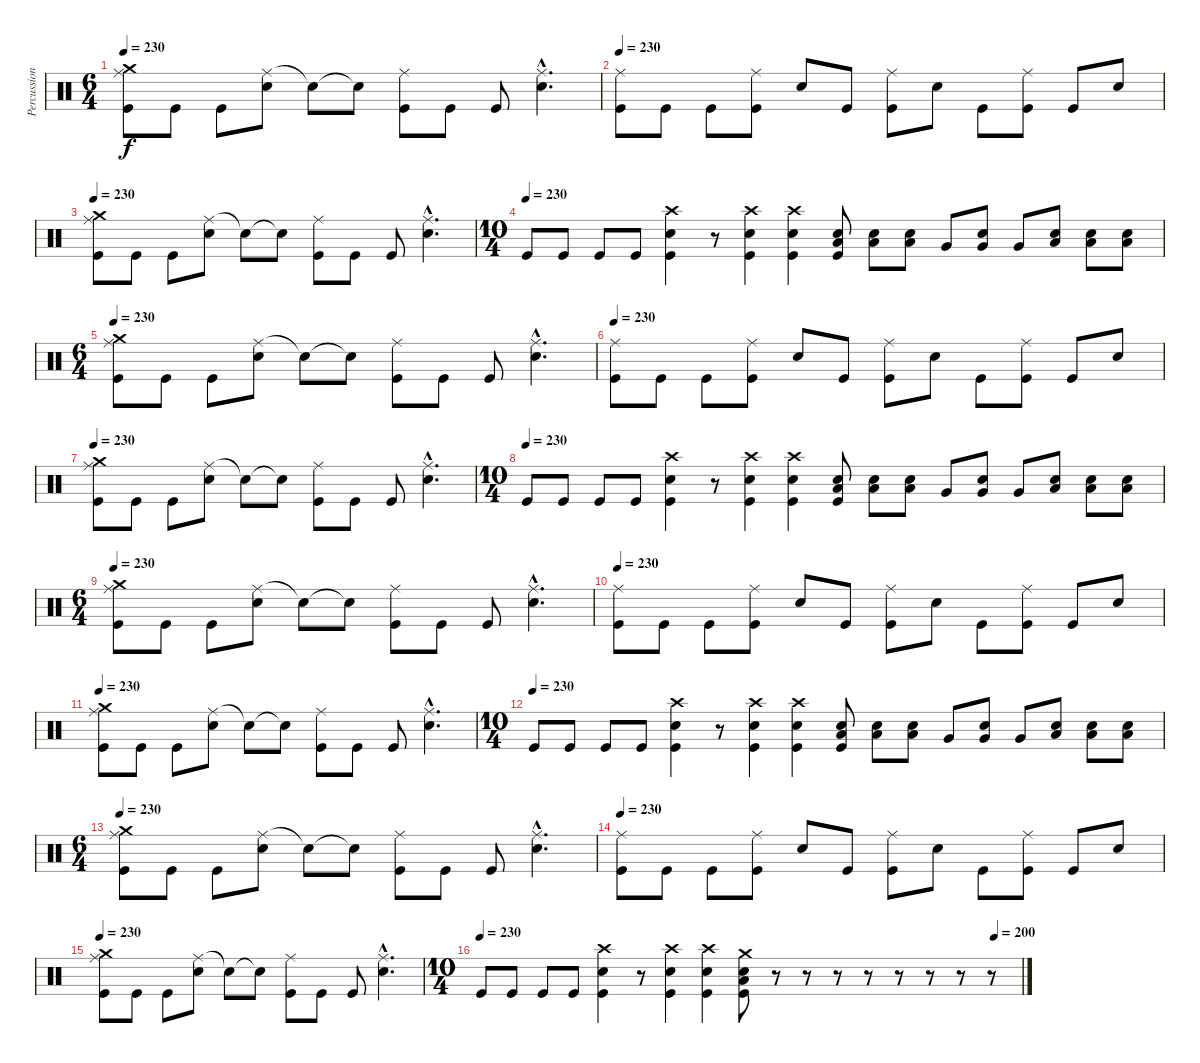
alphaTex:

\track ("Percussion" "Percussion") {instrument percussion}
\staff {score}
\articulation defaults
\ts (6 4)
\tempo 230
\clef neutral
\ks c
("Crash medium (hit)" "Ride (middle)" "Kick (hit)").8{dy f} "Kick (hit)".8 "Kick (hit)".8 ("Ride (middle)" "Electric Snare (hit)").8 "Snare (hit)"{t}.8 "Snare (hit)"{t}.8 ("Ride (middle)" "Kick (hit)").8 "Kick (hit)".8 "Kick (hit)".8 ("Ride (middle)"{hac} "Electric Snare (hit)"{hac}).4{d} |
\tempo 230
("Ride (middle)" "Kick (hit)").8 "Kick (hit)".8 "Kick (hit)".8 ("Ride (middle)" "Kick (hit)").8 "Electric Snare (hit)".8 "Kick (hit)".8 ("Ride (middle)" "Kick (hit)").8 "Electric Snare (hit)".8 "Kick (hit)".8 ("Ride (middle)" "Kick (hit)").8 "Kick (hit)".8 "Electric Snare (hit)".8 |
\tempo 230
("Crash medium (hit)" "Ride (middle)" "Kick (hit)").8 "Kick (hit)".8 "Kick (hit)".8 ("Ride (middle)" "Electric Snare (hit)").8 "Snare (hit)"{t}.8 "Snare (hit)"{t}.8 ("Ride (middle)" "Kick (hit)").8 "Kick (hit)".8 "Kick (hit)".8 ("Ride (middle)"{hac} "Electric Snare (hit)"{hac}).4{d} |
\ts (10 4)
\tempo (230)
"Kick (hit)".8 "Kick (hit)".8 "Kick (hit)".8 "Kick (hit)".8 ("Crash high (hit)" "Electric Snare (hit)" "Kick (hit)").4 r.8 ("Crash high (hit)" "Electric Snare (hit)" "Kick (hit)").4 ("Crash high (hit)" "Electric Snare (hit)" "Kick (hit)").4 ("Electric Snare (hit)" "Low Floor Tom (hit)" "Kick (hit)").8 ("Electric Snare (hit)" "Low Floor Tom (hit)").8 ("Electric Snare (hit)" "Low Floor Tom (hit)").8 "Very Low Tom (hit)".8 ("Electric Snare (hit)" "Very Low Tom (hit)").8 "Very Low Tom (hit)".8 ("Electric Snare (hit)" "Low Tom (hit)").8 ("Electric Snare (hit)" "Low Tom (hit)").8 ("Electric Snare (hit)" "Low Tom (hit)").8 |
\ts (6 4)
\tempo 230
("Crash medium (hit)" "Ride (middle)" "Kick (hit)").8 "Kick (hit)".8 "Kick (hit)".8 ("Ride (middle)" "Electric Snare (hit)").8 "Snare (hit)"{t}.8 "Snare (hit)"{t}.8 ("Ride (middle)" "Kick (hit)").8 "Kick (hit)".8 "Kick (hit)".8 ("Ride (middle)"{hac} "Electric Snare (hit)"{hac}).4{d} |
\tempo 230
("Ride (middle)" "Kick (hit)").8 "Kick (hit)".8 "Kick (hit)".8 ("Ride (middle)" "Kick (hit)").8 "Electric Snare (hit)".8 "Kick (hit)".8 ("Ride (middle)" "Kick (hit)").8 "Electric Snare (hit)".8 "Kick (hit)".8 ("Ride (middle)" "Kick (hit)").8 "Kick (hit)".8 "Electric Snare (hit)".8 |
\tempo 230
("Crash medium (hit)" "Ride (middle)" "Kick (hit)").8 "Kick (hit)".8 "Kick (hit)".8 ("Ride (middle)" "Electric Snare (hit)").8 "Snare (hit)"{t}.8 "Snare (hit)"{t}.8 ("Ride (middle)" "Kick (hit)").8 "Kick (hit)".8 "Kick (hit)".8 ("Ride (middle)"{hac} "Electric Snare (hit)"{hac}).4{d} |
\ts (10 4)
\tempo (230)
"Kick (hit)".8 "Kick (hit)".8 "Kick (hit)".8 "Kick (hit)".8 ("Crash high (hit)" "Electric Snare (hit)" "Kick (hit)").4 r.8 ("Crash high (hit)" "Electric Snare (hit)" "Kick (hit)").4 ("Crash high (hit)" "Electric Snare (hit)" "Kick (hit)").4 ("Electric Snare (hit)" "Low Floor Tom (hit)" "Kick (hit)").8 ("Electric Snare (hit)" "Low Floor Tom (hit)").8 ("Electric Snare (hit)" "Low Floor Tom (hit)").8 "Very Low Tom (hit)".8 ("Electric Snare (hit)" "Very Low Tom (hit)").8 "Very Low Tom (hit)".8 ("Electric Snare (hit)" "Low Tom (hit)").8 ("Electric Snare (hit)" "Low Tom (hit)").8 ("Electric Snare (hit)" "Low Tom (hit)").8 |
\ts (6 4)
\tempo 230
("Crash medium (hit)" "Ride (middle)" "Kick (hit)").8 "Kick (hit)".8 "Kick (hit)".8 ("Ride (middle)" "Electric Snare (hit)").8 "Snare (hit)"{t}.8 "Snare (hit)"{t}.8 ("Ride (middle)" "Kick (hit)").8 "Kick (hit)".8 "Kick (hit)".8 ("Ride (middle)"{hac} "Electric Snare (hit)"{hac}).4{d} |
\tempo 230
("Ride (middle)" "Kick (hit)").8 "Kick (hit)".8 "Kick (hit)".8 ("Ride (middle)" "Kick (hit)").8 "Electric Snare (hit)".8 "Kick (hit)".8 ("Ride (middle)" "Kick (hit)").8 "Electric Snare (hit)".8 "Kick (hit)".8 ("Ride (middle)" "Kick (hit)").8 "Kick (hit)".8 "Electric Snare (hit)".8 |
\tempo 230
("Crash medium (hit)" "Ride (middle)" "Kick (hit)").8 "Kick (hit)".8 "Kick (hit)".8 ("Ride (middle)" "Electric Snare (hit)").8 "Snare (hit)"{t}.8 "Snare (hit)"{t}.8 ("Ride (middle)" "Kick (hit)").8 "Kick (hit)".8 "Kick (hit)".8 ("Ride (middle)"{hac} "Electric Snare (hit)"{hac}).4{d} |
\ts (10 4)
\tempo (230)
"Kick (hit)".8 "Kick (hit)".8 "Kick (hit)".8 "Kick (hit)".8 ("Crash high (hit)" "Electric Snare (hit)" "Kick (hit)").4 r.8 ("Crash high (hit)" "Electric Snare (hit)" "Kick (hit)").4 ("Crash high (hit)" "Electric Snare (hit)" "Kick (hit)").4 ("Electric Snare (hit)" "Low Floor Tom (hit)" "Kick (hit)").8 ("Electric Snare (hit)" "Low Floor Tom (hit)").8 ("Electric Snare (hit)" "Low Floor Tom (hit)").8 "Very Low Tom (hit)".8 ("Electric Snare (hit)" "Very Low Tom (hit)").8 "Very Low Tom (hit)".8 ("Electric Snare (hit)" "Low Tom (hit)").8 ("Electric Snare (hit)" "Low Tom (hit)").8 ("Electric Snare (hit)" "Low Tom (hit)").8 |
\ts (6 4)
\tempo 230
("Crash medium (hit)" "Ride (middle)" "Kick (hit)").8 "Kick (hit)".8 "Kick (hit)".8 ("Ride (middle)" "Electric Snare (hit)").8 "Snare (hit)"{t}.8 "Snare (hit)"{t}.8 ("Ride (middle)" "Kick (hit)").8 "Kick (hit)".8 "Kick (hit)".8 ("Ride (middle)"{hac} "Electric Snare (hit)"{hac}).4{d} |
\tempo 230
("Ride (middle)" "Kick (hit)").8 "Kick (hit)".8 "Kick (hit)".8 ("Ride (middle)" "Kick (hit)").8 "Electric Snare (hit)".8 "Kick (hit)".8 ("Ride (middle)" "Kick (hit)").8 "Electric Snare (hit)".8 "Kick (hit)".8 ("Ride (middle)" "Kick (hit)").8 "Kick (hit)".8 "Electric Snare (hit)".8 |
\tempo 230
("Crash medium (hit)" "Ride (middle)" "Kick (hit)").8 "Kick (hit)".8 "Kick (hit)".8 ("Ride (middle)" "Electric Snare (hit)").8 "Snare (hit)"{t}.8 "Snare (hit)"{t}.8 ("Ride (middle)" "Kick (hit)").8 "Kick (hit)".8 "Kick (hit)".8 ("Ride (middle)"{hac} "Electric Snare (hit)"{hac}).4{d} |
\ts (10 4)
\tempo (200 0.95)
\tempo (230)
"Kick (hit)".8 "Kick (hit)".8 "Kick (hit)".8 "Kick (hit)".8 ("Crash high (hit)" "Electric Snare (hit)" "Kick (hit)").4 r.8 ("Crash high (hit)" "Electric Snare (hit)" "Kick (hit)").4 ("Crash high (hit)" "Electric Snare (hit)" "Kick (hit)").4 ("Crash medium (hit)" "Electric Snare (hit)" "Low Floor Tom (hit)" "Kick (hit)").8 r.8 r.8 r.8 r.8 r.8 r.8 r.8 r.8
